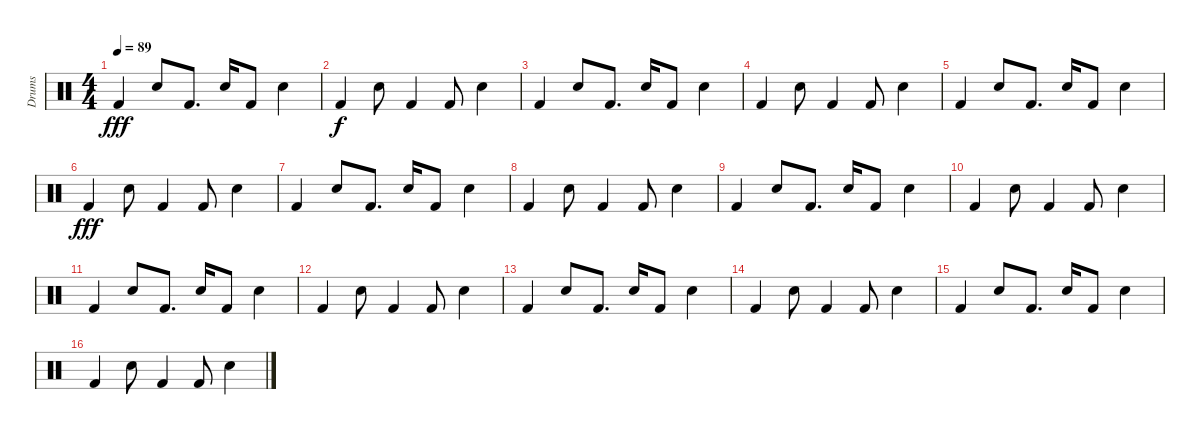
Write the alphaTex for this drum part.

\track ("Drums" "Drums") {instrument percussion}
\staff {score}
\articulation defaults
\ts (4 4)
\tempo 89
\clef neutral
\ks c "Kick (hit) 2".4{dy fff} "Electric Snare (hit)".8 "Kick (hit) 2".8{d} "Electric Snare (hit)".16 "Kick (hit) 2".8 "Electric Snare (hit)".4
|
"Kick (hit) 2".4{dy f} "Electric Snare (hit)".8 "Kick (hit) 2".4 "Kick (hit) 2".8 "Electric Snare (hit)".4 |
"Kick (hit) 2".4 "Electric Snare (hit)".8 "Kick (hit) 2".8{d} "Electric Snare (hit)".16 "Kick (hit) 2".8 "Electric Snare (hit)".4 |
"Kick (hit) 2".4 "Electric Snare (hit)".8 "Kick (hit) 2".4 "Kick (hit) 2".8 "Electric Snare (hit)".4 |
"Kick (hit) 2".4 "Electric Snare (hit)".8 "Kick (hit) 2".8{d} "Electric Snare (hit)".16 "Kick (hit) 2".8 "Electric Snare (hit)".4 |
"Kick (hit) 2".4{dy fff} "Electric Snare (hit)".8 "Kick (hit) 2".4 "Kick (hit) 2".8 "Electric Snare (hit)".4 |
"Kick (hit) 2".4 "Electric Snare (hit)".8 "Kick (hit) 2".8{d} "Electric Snare (hit)".16 "Kick (hit) 2".8 "Electric Snare (hit)".4 |
"Kick (hit) 2".4 "Electric Snare (hit)".8 "Kick (hit) 2".4 "Kick (hit) 2".8 "Electric Snare (hit)".4 |
"Kick (hit) 2".4 "Electric Snare (hit)".8 "Kick (hit) 2".8{d} "Electric Snare (hit)".16 "Kick (hit) 2".8 "Electric Snare (hit)".4 |
"Kick (hit) 2".4 "Electric Snare (hit)".8 "Kick (hit) 2".4 "Kick (hit) 2".8 "Electric Snare (hit)".4 |
"Kick (hit) 2".4 "Electric Snare (hit)".8 "Kick (hit) 2".8{d} "Electric Snare (hit)".16 "Kick (hit) 2".8 "Electric Snare (hit)".4 |
"Kick (hit) 2".4 "Electric Snare (hit)".8 "Kick (hit) 2".4 "Kick (hit) 2".8 "Electric Snare (hit)".4 |
"Kick (hit) 2".4 "Electric Snare (hit)".8 "Kick (hit) 2".8{d} "Electric Snare (hit)".16 "Kick (hit) 2".8 "Electric Snare (hit)".4 |
"Kick (hit) 2".4 "Electric Snare (hit)".8 "Kick (hit) 2".4 "Kick (hit) 2".8 "Electric Snare (hit)".4 |
"Kick (hit) 2".4 "Electric Snare (hit)".8 "Kick (hit) 2".8{d} "Electric Snare (hit)".16 "Kick (hit) 2".8 "Electric Snare (hit)".4 |
"Kick (hit) 2".4 "Electric Snare (hit)".8 "Kick (hit) 2".4 "Kick (hit) 2".8 "Electric Snare (hit)".4
